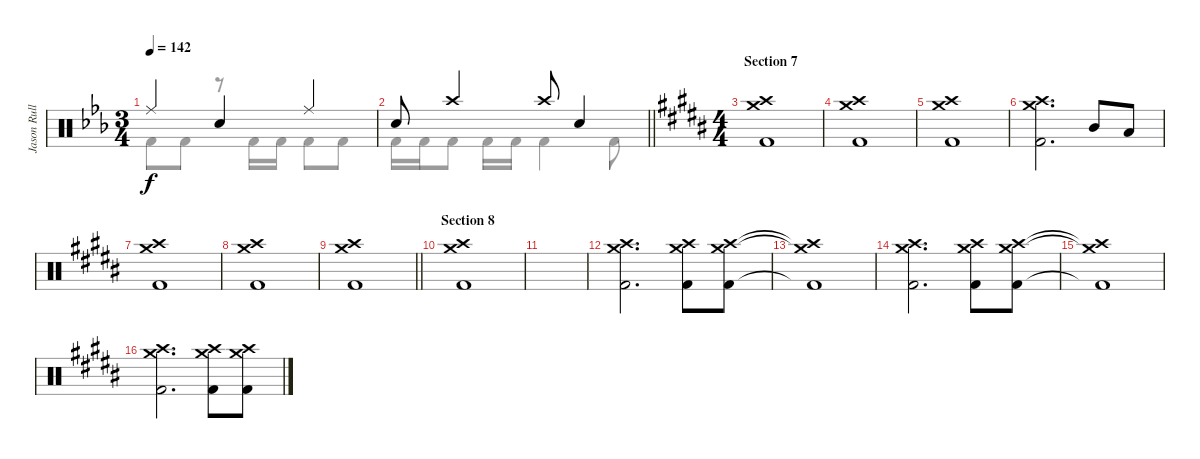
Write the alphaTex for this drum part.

\track ("Jason Rullo (drums)" "Jason Rull") {instrument percussion}
\staff {score}
\articulation defaults
\voice
\ts (3 4)
\tempo 142
\clef neutral
\ks cminor "Ride (middle)".4{dy f} "Electric Snare (hit)".4 "Ride (middle)".4
|
\barLineRight lightlight "Electric Snare (hit)".8 "Crash high (hit)".4 "Crash high (hit)".8 "Electric Snare (hit)".4
|
\ts (4 4)
\section ("" "Section 7")
\ks g#minor
("Crash high (hit)" "Crash medium (hit)" "Kick (hit) 2").1 |
("Crash high (hit)" "Crash medium (hit)" "Kick (hit) 2").1 |
("Crash high (hit)" "Crash medium (hit)" "Kick (hit) 2").1 |
("Crash high (hit)" "Crash medium (hit)" "Kick (hit) 2").2{d} "Mid Tom (hit)".8 "Low Tom (hit)".8 |
("Crash high (hit)" "Crash medium (hit)" "Kick (hit) 2").1 |
("Crash high (hit)" "Crash medium (hit)" "Kick (hit) 2").1 |
\barLineRight lightlight
("Crash high (hit)" "Crash medium (hit)" "Kick (hit) 2").1 |
\section ("" "Section 8")
("Crash high (hit)" "Crash medium (hit)" "Kick (hit) 2").1 |
|
("Crash high (hit)" "Crash medium (hit)" "Kick (hit) 2").2{d} ("Crash high (hit)" "Crash medium (hit)" "Kick (hit) 2").8 ("Crash high (hit)" "Crash medium (hit)" "Kick (hit) 2").8 |
("Crash high (hit)"{t} "Crash medium (hit)"{t} "Kick (hit) 2"{t}).1 |
("Crash high (hit)" "Crash medium (hit)" "Kick (hit) 2").2{d} ("Crash high (hit)" "Crash medium (hit)" "Kick (hit) 2").8 ("Crash high (hit)" "Crash medium (hit)" "Kick (hit) 2").8 |
("Crash high (hit)"{t} "Crash medium (hit)"{t} "Kick (hit) 2"{t}).1 |
("Crash high (hit)" "Crash medium (hit)" "Kick (hit) 2").2{d} ("Crash high (hit)" "Crash medium (hit)" "Kick (hit) 2").8 ("Crash high (hit)" "Crash medium (hit)" "Kick (hit) 2").8
\voice
\clef neutral
\ottava regular
\simile none
\ks cminor "Kick (hit) 2".8{dy f} "Kick (hit) 2".8
r.8 "Kick (hit) 2".16 "Kick (hit) 2".16 "Kick (hit) 2".8 "Kick (hit) 2".8 |
\barLineRight lightlight "Kick (hit) 2".16 "Kick (hit) 2".16 "Kick (hit) 2".8 "Kick (hit) 2".16 "Kick (hit) 2".16 "Kick (hit) 2".4 "Kick (hit) 2".8
|
\ks g#minor
|
|
|
|
|
|
\barLineRight lightlight
|
|
|
|
|
|
|
